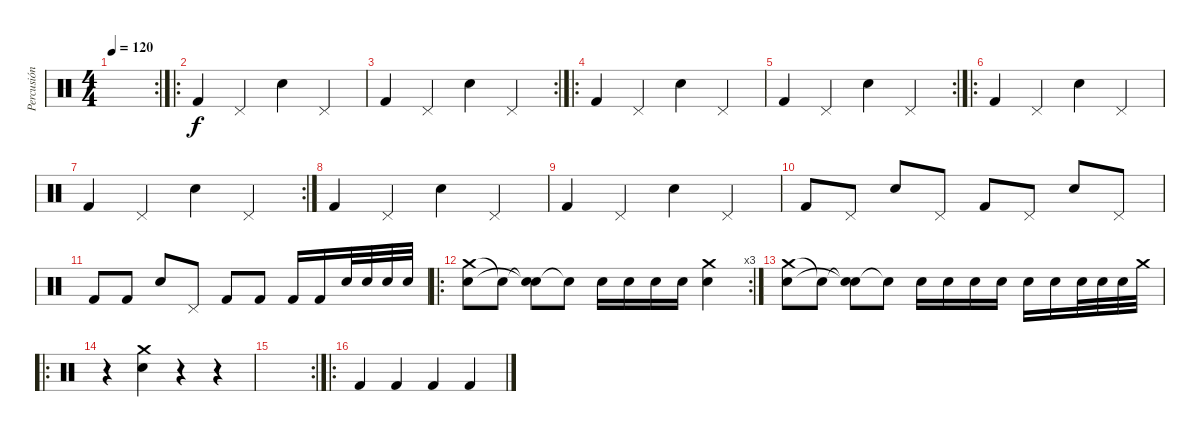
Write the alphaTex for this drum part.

\track ("Percusión" "Percusión") {instrument percussion}
\staff {score}
\articulation defaults
\rc 2
\ts (4 4)
\tempo 120
\clef neutral
\ks c
|
\ro "Kick (hit) 2".4 "Pedal Hi-Hat (hit)".4 "Snare (hit) 2".4 "Pedal Hi-Hat (hit)".4
|
\rc 2 "Kick (hit) 2".4 "Pedal Hi-Hat (hit)".4 "Snare (hit) 2".4 "Pedal Hi-Hat (hit)".4
|
\ro "Kick (hit) 2".4 "Pedal Hi-Hat (hit)".4 "Snare (hit) 2".4 "Pedal Hi-Hat (hit)".4
|
\rc 2 "Kick (hit) 2".4 "Pedal Hi-Hat (hit)".4 "Snare (hit) 2".4 "Pedal Hi-Hat (hit)".4
|
\ro "Kick (hit) 2".4 "Pedal Hi-Hat (hit)".4 "Snare (hit) 2".4 "Pedal Hi-Hat (hit)".4
|
\rc 2 "Kick (hit) 2".4 "Pedal Hi-Hat (hit)".4 "Snare (hit) 2".4 "Pedal Hi-Hat (hit)".4
|
"Kick (hit) 2".4 "Pedal Hi-Hat (hit)".4 "Snare (hit) 2".4 "Pedal Hi-Hat (hit)".4 |
"Kick (hit) 2".4 "Pedal Hi-Hat (hit)".4 "Snare (hit) 2".4 "Pedal Hi-Hat (hit)".4 |
"Kick (hit) 2".8 "Pedal Hi-Hat (hit)".8 "Snare (hit) 2".8 "Pedal Hi-Hat (hit)".8 "Kick (hit) 2".8 "Pedal Hi-Hat (hit)".8 "Snare (hit) 2".8 "Pedal Hi-Hat (hit)".8 |
"Kick (hit) 2".8 "Kick (hit) 2".8 "Snare (hit) 2".8 "Pedal Hi-Hat (hit)".8 "Kick (hit) 2".8 "Kick (hit) 2".8 "Kick (hit) 2".16 "Kick (hit) 2".16 "Snare (hit) 2".32 "Snare (hit) 2".32 "Snare (hit) 2".32 "Snare (hit) 2".32 |
\ro
\rc 3
("Crash medium (hit)" "Snare (hit) 2").8 "Snare (hit)"{t}.8 ("Snare (hit)"{t} "Snare (hit)"{t}).8 "Snare (hit)"{t}.8 "Snare (hit) 2".16 "Snare (hit) 2".16 "Snare (hit) 2".16 "Snare (hit) 2".16 ("Crash medium (hit)" "Snare (hit) 2").4 |
("Crash medium (hit)" "Snare (hit) 2").8 "Snare (hit)"{t}.8 ("Snare (hit)"{t} "Snare (hit)"{t}).8 "Snare (hit)"{t}.8 "Snare (hit) 2".16 "Snare (hit) 2".16 "Snare (hit) 2".16 "Snare (hit) 2".16 "Snare (hit) 2".16 "Snare (hit) 2".16 "Snare (hit) 2".32 "Snare (hit) 2".32 "Snare (hit) 2".32 "Crash medium (hit)".32 |
\ro
r.4 ("Crash medium (hit)" "Snare (hit) 2").4 r.4 r.4 |
\rc 2
|
\ro "Kick (hit) 2".4 "Kick (hit) 2".4 "Kick (hit) 2".4 "Kick (hit) 2".4
